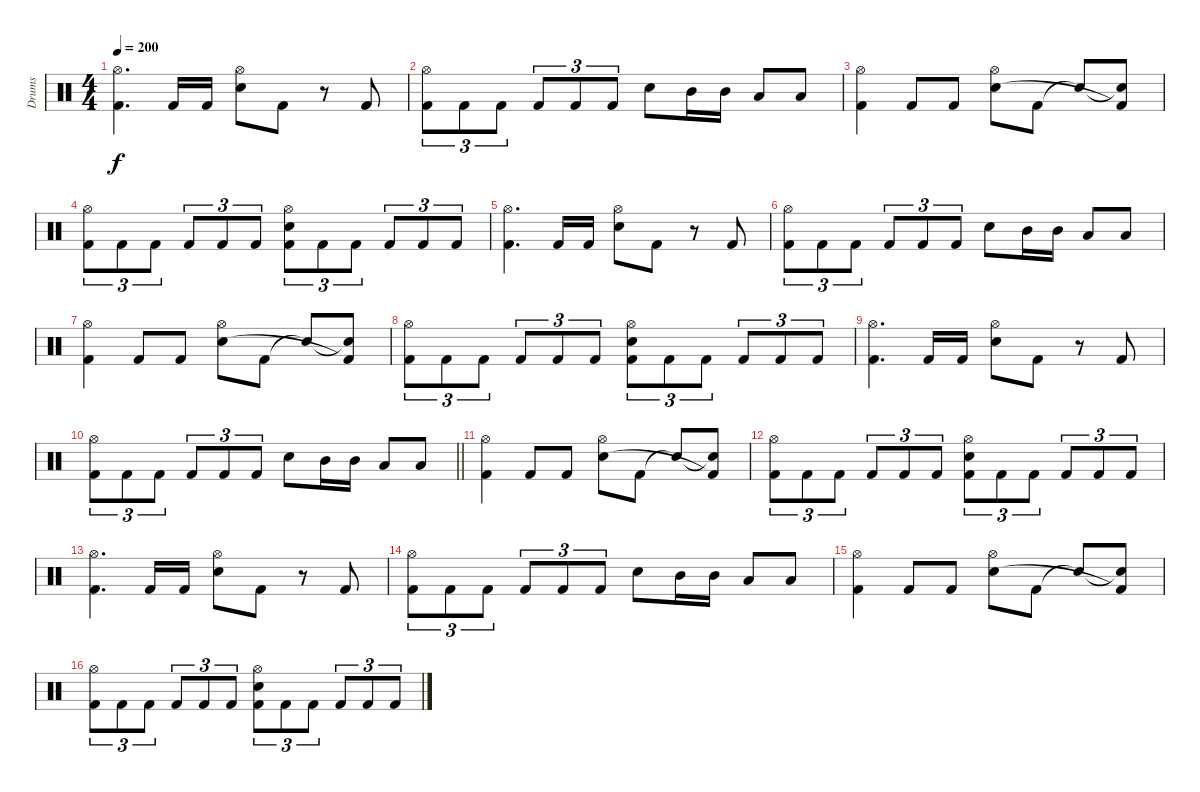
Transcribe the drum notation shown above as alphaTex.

\track ("Drums" "Drums") {instrument percussion}
\staff {score}
\articulation defaults
\ts (4 4)
\tempo 200
\clef neutral
\ks c
("Hi-Hat (open)" "Kick (hit) 2").4{d dy f} "Kick (hit) 2".16 "Kick (hit) 2".16 ("Hi-Hat (open)" "Electric Snare (hit)").8 "Kick (hit) 2".8 r.8 "Kick (hit) 2".8 |
("Hi-Hat (open)" "Kick (hit) 2").8{tu (3 2)} "Kick (hit) 2".8{tu (3 2)} "Kick (hit) 2".8{tu (3 2)} "Kick (hit) 2".8{tu (3 2)} "Kick (hit) 2".8{tu (3 2)} "Kick (hit) 2".8{tu (3 2)} "Electric Snare (hit)".8 "Mid Tom (hit)".16 "Mid Tom (hit)".16 "Low Tom (hit)".8 "Low Tom (hit)".8 |
("Hi-Hat (open)" "Kick (hit) 2").4 "Kick (hit) 2".8 "Kick (hit) 2".8 ("Hi-Hat (open)" "Electric Snare (hit)").8 "Kick (hit) 2".8 "Snare (hit)"{t}.8 ("Snare (hit)"{t} "Kick (hit) 2"{t}).8 |
("Hi-Hat (open)" "Kick (hit) 2").8{tu (3 2)} "Kick (hit) 2".8{tu (3 2)} "Kick (hit) 2".8{tu (3 2)} "Kick (hit) 2".8{tu (3 2)} "Kick (hit) 2".8{tu (3 2)} "Kick (hit) 2".8{tu (3 2)} ("Hi-Hat (open)" "Electric Snare (hit)" "Kick (hit) 2").8{tu (3 2)} "Kick (hit) 2".8{tu (3 2)} "Kick (hit) 2".8{tu (3 2)} "Kick (hit) 2".8{tu (3 2)} "Kick (hit) 2".8{tu (3 2)} "Kick (hit) 2".8{tu (3 2)} |
("Hi-Hat (open)" "Kick (hit) 2").4{d} "Kick (hit) 2".16 "Kick (hit) 2".16 ("Hi-Hat (open)" "Electric Snare (hit)").8 "Kick (hit) 2".8 r.8 "Kick (hit) 2".8 |
("Hi-Hat (open)" "Kick (hit) 2").8{tu (3 2)} "Kick (hit) 2".8{tu (3 2)} "Kick (hit) 2".8{tu (3 2)} "Kick (hit) 2".8{tu (3 2)} "Kick (hit) 2".8{tu (3 2)} "Kick (hit) 2".8{tu (3 2)} "Electric Snare (hit)".8 "Mid Tom (hit)".16 "Mid Tom (hit)".16 "Low Tom (hit)".8 "Low Tom (hit)".8 |
("Hi-Hat (open)" "Kick (hit) 2").4 "Kick (hit) 2".8 "Kick (hit) 2".8 ("Hi-Hat (open)" "Electric Snare (hit)").8 "Kick (hit) 2".8 "Snare (hit)"{t}.8 ("Snare (hit)"{t} "Kick (hit) 2"{t}).8 |
("Hi-Hat (open)" "Kick (hit) 2").8{tu (3 2)} "Kick (hit) 2".8{tu (3 2)} "Kick (hit) 2".8{tu (3 2)} "Kick (hit) 2".8{tu (3 2)} "Kick (hit) 2".8{tu (3 2)} "Kick (hit) 2".8{tu (3 2)} ("Hi-Hat (open)" "Electric Snare (hit)" "Kick (hit) 2").8{tu (3 2)} "Kick (hit) 2".8{tu (3 2)} "Kick (hit) 2".8{tu (3 2)} "Kick (hit) 2".8{tu (3 2)} "Kick (hit) 2".8{tu (3 2)} "Kick (hit) 2".8{tu (3 2)} |
("Hi-Hat (open)" "Kick (hit) 2").4{d} "Kick (hit) 2".16 "Kick (hit) 2".16 ("Hi-Hat (open)" "Electric Snare (hit)").8 "Kick (hit) 2".8 r.8 "Kick (hit) 2".8 |
\barLineRight lightlight
("Hi-Hat (open)" "Kick (hit) 2").8{tu (3 2)} "Kick (hit) 2".8{tu (3 2)} "Kick (hit) 2".8{tu (3 2)} "Kick (hit) 2".8{tu (3 2)} "Kick (hit) 2".8{tu (3 2)} "Kick (hit) 2".8{tu (3 2)} "Electric Snare (hit)".8 "Mid Tom (hit)".16 "Mid Tom (hit)".16 "Low Tom (hit)".8 "Low Tom (hit)".8 |
("Hi-Hat (open)" "Kick (hit) 2").4 "Kick (hit) 2".8 "Kick (hit) 2".8 ("Hi-Hat (open)" "Electric Snare (hit)").8 "Kick (hit) 2".8 "Snare (hit)"{t}.8 ("Snare (hit)"{t} "Kick (hit) 2"{t}).8 |
("Hi-Hat (open)" "Kick (hit) 2").8{tu (3 2)} "Kick (hit) 2".8{tu (3 2)} "Kick (hit) 2".8{tu (3 2)} "Kick (hit) 2".8{tu (3 2)} "Kick (hit) 2".8{tu (3 2)} "Kick (hit) 2".8{tu (3 2)} ("Hi-Hat (open)" "Electric Snare (hit)" "Kick (hit) 2").8{tu (3 2)} "Kick (hit) 2".8{tu (3 2)} "Kick (hit) 2".8{tu (3 2)} "Kick (hit) 2".8{tu (3 2)} "Kick (hit) 2".8{tu (3 2)} "Kick (hit) 2".8{tu (3 2)} |
("Hi-Hat (open)" "Kick (hit) 2").4{d} "Kick (hit) 2".16 "Kick (hit) 2".16 ("Hi-Hat (open)" "Electric Snare (hit)").8 "Kick (hit) 2".8 r.8 "Kick (hit) 2".8 |
("Hi-Hat (open)" "Kick (hit) 2").8{tu (3 2)} "Kick (hit) 2".8{tu (3 2)} "Kick (hit) 2".8{tu (3 2)} "Kick (hit) 2".8{tu (3 2)} "Kick (hit) 2".8{tu (3 2)} "Kick (hit) 2".8{tu (3 2)} "Electric Snare (hit)".8 "Mid Tom (hit)".16 "Mid Tom (hit)".16 "Low Tom (hit)".8 "Low Tom (hit)".8 |
("Hi-Hat (open)" "Kick (hit) 2").4 "Kick (hit) 2".8 "Kick (hit) 2".8 ("Hi-Hat (open)" "Electric Snare (hit)").8 "Kick (hit) 2".8 "Snare (hit)"{t}.8 ("Snare (hit)"{t} "Kick (hit) 2"{t}).8 |
("Hi-Hat (open)" "Kick (hit) 2").8{tu (3 2)} "Kick (hit) 2".8{tu (3 2)} "Kick (hit) 2".8{tu (3 2)} "Kick (hit) 2".8{tu (3 2)} "Kick (hit) 2".8{tu (3 2)} "Kick (hit) 2".8{tu (3 2)} ("Hi-Hat (open)" "Electric Snare (hit)" "Kick (hit) 2").8{tu (3 2)} "Kick (hit) 2".8{tu (3 2)} "Kick (hit) 2".8{tu (3 2)} "Kick (hit) 2".8{tu (3 2)} "Kick (hit) 2".8{tu (3 2)} "Kick (hit) 2".8{tu (3 2)}
